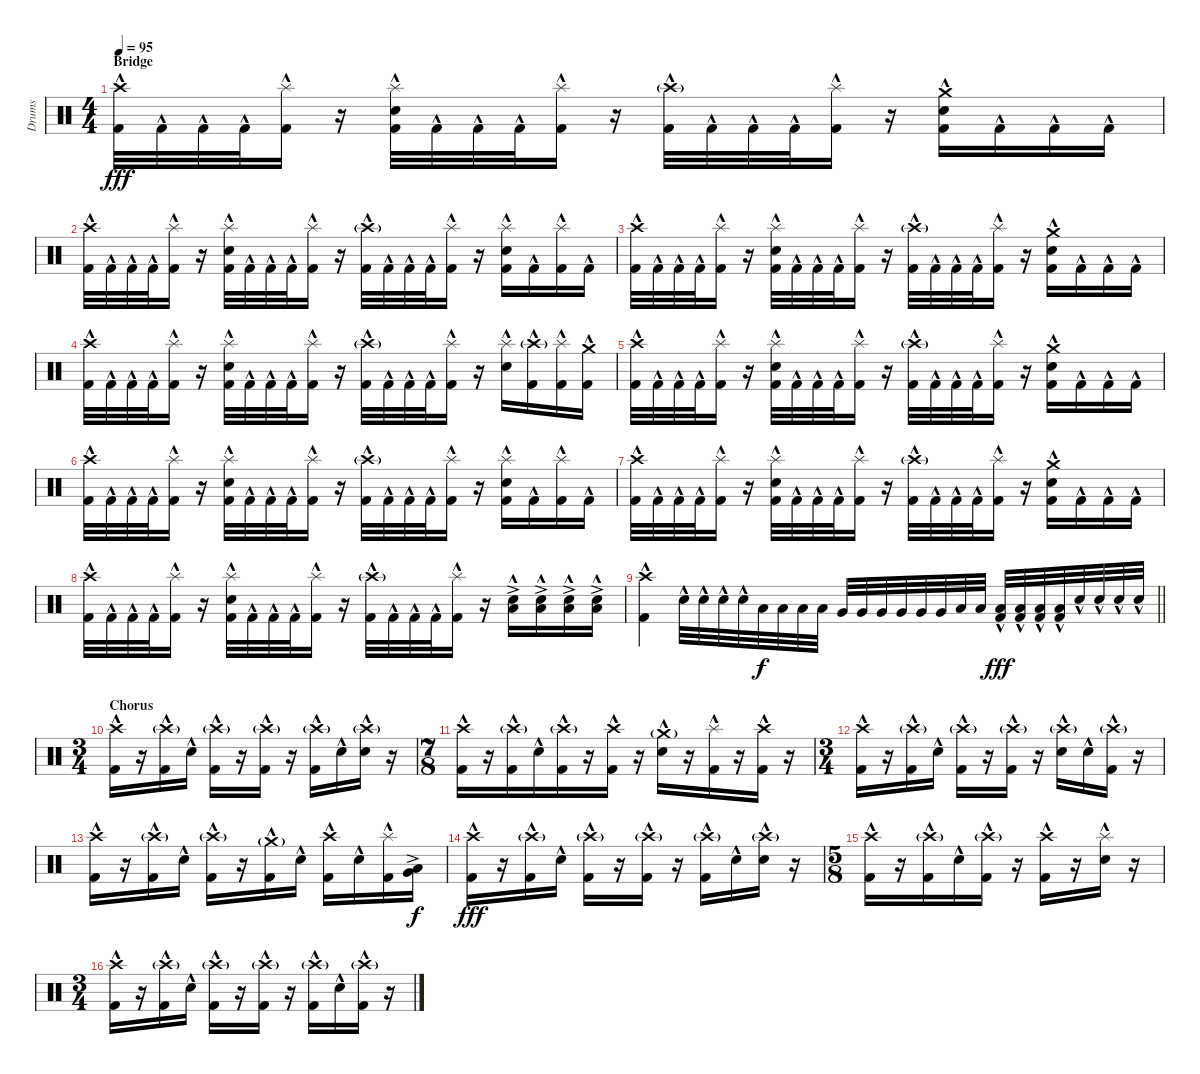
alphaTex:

\track ("Drums" "Drums") {instrument percussion}
\staff {score}
\articulation defaults
\ts (4 4)
\section ("" "Bridge")
\tempo 95
\clef neutral
\ks c
("Crash high (hit)" "Kick (hit) 2"{hac}).32{dy fff} "Kick (hit) 2"{hac}.32 "Kick (hit) 2"{hac}.32 "Kick (hit) 2"{hac}.32 ("Splash (hit)" "Kick (hit) 2"{hac}).16 r.16 ("Splash (hit)" "Electric Snare (hit)"{hac} "Kick (hit) 2"{hac}).32 "Kick (hit) 2"{hac}.32 "Kick (hit) 2"{hac}.32 "Kick (hit) 2"{hac}.32 ("Splash (hit)" "Kick (hit) 2"{hac}).16 r.16 ("Crash high (hit)"{g} "Kick (hit) 2"{hac}).32 "Kick (hit) 2"{hac}.32 "Kick (hit) 2"{hac}.32 "Kick (hit) 2"{hac}.32 ("Splash (hit)" "Kick (hit) 2"{hac}).16 r.16 ("Crash medium (hit)" "Electric Snare (hit)"{hac} "Kick (hit) 2"{hac}).16 "Kick (hit) 2"{hac}.16 "Kick (hit) 2"{hac}.16 "Kick (hit) 2"{hac}.16 |
("Crash high (hit)" "Kick (hit) 2"{hac}).32 "Kick (hit) 2"{hac}.32 "Kick (hit) 2"{hac}.32 "Kick (hit) 2"{hac}.32 ("Splash (hit)" "Kick (hit) 2"{hac}).16 r.16 ("Splash (hit)" "Electric Snare (hit)"{hac} "Kick (hit) 2"{hac}).32 "Kick (hit) 2"{hac}.32 "Kick (hit) 2"{hac}.32 "Kick (hit) 2"{hac}.32 ("Splash (hit)" "Kick (hit) 2"{hac}).16 r.16 ("Crash high (hit)"{g} "Kick (hit) 2"{hac}).32 "Kick (hit) 2"{hac}.32 "Kick (hit) 2"{hac}.32 "Kick (hit) 2"{hac}.32 ("Splash (hit)" "Kick (hit) 2"{hac}).16 r.16 ("Splash (hit)" "Electric Snare (hit)"{hac} "Kick (hit) 2"{hac}).16 "Kick (hit) 2"{hac}.16 ("Splash (hit)" "Kick (hit) 2"{hac}).16 "Kick (hit) 2"{hac}.16 |
("Crash high (hit)" "Kick (hit) 2"{hac}).32 "Kick (hit) 2"{hac}.32 "Kick (hit) 2"{hac}.32 "Kick (hit) 2"{hac}.32 ("Splash (hit)" "Kick (hit) 2"{hac}).16 r.16 ("Splash (hit)" "Electric Snare (hit)"{hac} "Kick (hit) 2"{hac}).32 "Kick (hit) 2"{hac}.32 "Kick (hit) 2"{hac}.32 "Kick (hit) 2"{hac}.32 ("Splash (hit)" "Kick (hit) 2"{hac}).16 r.16 ("Crash high (hit)"{g} "Kick (hit) 2"{hac}).32 "Kick (hit) 2"{hac}.32 "Kick (hit) 2"{hac}.32 "Kick (hit) 2"{hac}.32 ("Splash (hit)" "Kick (hit) 2"{hac}).16 r.16 ("Crash medium (hit)" "Electric Snare (hit)"{hac} "Kick (hit) 2"{hac}).16 "Kick (hit) 2"{hac}.16 "Kick (hit) 2"{hac}.16 "Kick (hit) 2"{hac}.16 |
("Crash high (hit)" "Kick (hit) 2"{hac}).32 "Kick (hit) 2"{hac}.32 "Kick (hit) 2"{hac}.32 "Kick (hit) 2"{hac}.32 ("Splash (hit)" "Kick (hit) 2"{hac}).16 r.16 ("Splash (hit)" "Electric Snare (hit)"{hac} "Kick (hit) 2"{hac}).32 "Kick (hit) 2"{hac}.32 "Kick (hit) 2"{hac}.32 "Kick (hit) 2"{hac}.32 ("Splash (hit)" "Kick (hit) 2"{hac}).16 r.16 ("Crash high (hit)"{g} "Kick (hit) 2"{hac}).32 "Kick (hit) 2"{hac}.32 "Kick (hit) 2"{hac}.32 "Kick (hit) 2"{hac}.32 ("Splash (hit)" "Kick (hit) 2"{hac}).16 r.16 ("Splash (hit)" "Electric Snare (hit)"{hac}).16 ("Crash high (hit)"{g} "Kick (hit) 2"{hac}).16 ("Splash (hit)" "Kick (hit) 2"{hac}).16 ("Crash medium (hit)" "Kick (hit) 2"{hac}).16 |
("Crash high (hit)" "Kick (hit) 2"{hac}).32 "Kick (hit) 2"{hac}.32 "Kick (hit) 2"{hac}.32 "Kick (hit) 2"{hac}.32 ("Splash (hit)" "Kick (hit) 2"{hac}).16 r.16 ("Splash (hit)" "Electric Snare (hit)"{hac} "Kick (hit) 2"{hac}).32 "Kick (hit) 2"{hac}.32 "Kick (hit) 2"{hac}.32 "Kick (hit) 2"{hac}.32 ("Splash (hit)" "Kick (hit) 2"{hac}).16 r.16 ("Crash high (hit)"{g} "Kick (hit) 2"{hac}).32 "Kick (hit) 2"{hac}.32 "Kick (hit) 2"{hac}.32 "Kick (hit) 2"{hac}.32 ("Splash (hit)" "Kick (hit) 2"{hac}).16 r.16 ("Crash medium (hit)" "Electric Snare (hit)"{hac} "Kick (hit) 2"{hac}).16 "Kick (hit) 2"{hac}.16 "Kick (hit) 2"{hac}.16 "Kick (hit) 2"{hac}.16 |
("Crash high (hit)" "Kick (hit) 2"{hac}).32 "Kick (hit) 2"{hac}.32 "Kick (hit) 2"{hac}.32 "Kick (hit) 2"{hac}.32 ("Splash (hit)" "Kick (hit) 2"{hac}).16 r.16 ("Splash (hit)" "Electric Snare (hit)"{hac} "Kick (hit) 2"{hac}).32 "Kick (hit) 2"{hac}.32 "Kick (hit) 2"{hac}.32 "Kick (hit) 2"{hac}.32 ("Splash (hit)" "Kick (hit) 2"{hac}).16 r.16 ("Crash high (hit)"{g} "Kick (hit) 2"{hac}).32 "Kick (hit) 2"{hac}.32 "Kick (hit) 2"{hac}.32 "Kick (hit) 2"{hac}.32 ("Splash (hit)" "Kick (hit) 2"{hac}).16 r.16 ("Splash (hit)" "Electric Snare (hit)"{hac} "Kick (hit) 2"{hac}).16 "Kick (hit) 2"{hac}.16 ("Splash (hit)" "Kick (hit) 2"{hac}).16 "Kick (hit) 2"{hac}.16 |
("Crash high (hit)" "Kick (hit) 2"{hac}).32 "Kick (hit) 2"{hac}.32 "Kick (hit) 2"{hac}.32 "Kick (hit) 2"{hac}.32 ("Splash (hit)" "Kick (hit) 2"{hac}).16 r.16 ("Splash (hit)" "Electric Snare (hit)"{hac} "Kick (hit) 2"{hac}).32 "Kick (hit) 2"{hac}.32 "Kick (hit) 2"{hac}.32 "Kick (hit) 2"{hac}.32 ("Splash (hit)" "Kick (hit) 2"{hac}).16 r.16 ("Crash high (hit)"{g} "Kick (hit) 2"{hac}).32 "Kick (hit) 2"{hac}.32 "Kick (hit) 2"{hac}.32 "Kick (hit) 2"{hac}.32 ("Splash (hit)" "Kick (hit) 2"{hac}).16 r.16 ("Crash medium (hit)" "Electric Snare (hit)"{hac} "Kick (hit) 2"{hac}).16 "Kick (hit) 2"{hac}.16 "Kick (hit) 2"{hac}.16 "Kick (hit) 2"{hac}.16 |
("Crash high (hit)" "Kick (hit) 2"{hac}).32 "Kick (hit) 2"{hac}.32 "Kick (hit) 2"{hac}.32 "Kick (hit) 2"{hac}.32 ("Splash (hit)" "Kick (hit) 2"{hac}).16 r.16 ("Splash (hit)" "Electric Snare (hit)"{hac} "Kick (hit) 2"{hac}).32 "Kick (hit) 2"{hac}.32 "Kick (hit) 2"{hac}.32 "Kick (hit) 2"{hac}.32 ("Splash (hit)" "Kick (hit) 2"{hac}).16 r.16 ("Crash high (hit)"{g} "Kick (hit) 2"{hac}).32 "Kick (hit) 2"{hac}.32 "Kick (hit) 2"{hac}.32 "Kick (hit) 2"{hac}.32 ("Splash (hit)" "Kick (hit) 2"{hac}).16 r.16 ("Low Floor Tom (hit)"{ac} "Electric Snare (hit)"{hac}).16{bd 60} ("Low Floor Tom (hit)"{ac} "Electric Snare (hit)"{hac}).16{bd 60} ("Low Floor Tom (hit)"{ac} "Electric Snare (hit)"{hac}).16{bd 60} ("Low Floor Tom (hit)"{ac} "Electric Snare (hit)"{hac}).16{bd 60} |
\barLineRight lightlight
("Crash high (hit)" "Kick (hit) 2"{hac}).4 "Electric Snare (hit)"{hac}.32 "Electric Snare (hit)"{hac}.32 "Electric Snare (hit)"{hac}.32 "Electric Snare (hit)"{hac}.32 "Low Tom (hit)".32{dy f} "Low Tom (hit)".32 "Low Tom (hit)".32 "Low Tom (hit)".32 "Very Low Tom (hit)".32 "Very Low Tom (hit)".32 "Very Low Tom (hit)".32 "Very Low Tom (hit)".32 "Very Low Tom (hit)".32 "Very Low Tom (hit)".32 "Low Floor Tom (hit)".32 "Low Floor Tom (hit)".32 ("Low Floor Tom (hit)" "Kick (hit) 2"{hac}).32{dy fff} ("Low Floor Tom (hit)" "Kick (hit) 2"{hac}).32 ("Low Floor Tom (hit)" "Kick (hit) 2"{hac}).32 ("Low Floor Tom (hit)" "Kick (hit) 2"{hac}).32 "Electric Snare (hit)"{hac}.32 "Electric Snare (hit)"{hac}.32 "Electric Snare (hit)"{hac}.32 "Electric Snare (hit)"{hac}.32 |
\ts (3 4)
\section ("" "Chorus")
("Crash high (hit)" "Kick (hit) 2"{hac}).16 r.16 ("Crash high (hit)"{g} "Kick (hit) 2"{hac}).16 "Electric Snare (hit)"{hac}.16 ("Crash high (hit)"{g} "Kick (hit) 2"{hac}).16 r.16 ("Crash high (hit)"{g} "Kick (hit) 2"{hac}).16 r.16 ("Crash high (hit)"{g} "Kick (hit) 2"{hac}).16 "Electric Snare (hit)"{hac}.16 ("Crash high (hit)"{g} "Electric Snare (hit)"{hac}).16 r.16 |
\ts (7 8)
("Crash high (hit)" "Kick (hit) 2"{hac}).16 r.16 ("Crash high (hit)"{g} "Kick (hit) 2"{hac}).16 "Electric Snare (hit)"{hac}.16 ("Crash high (hit)"{g} "Kick (hit) 2"{hac}).16 r.16 ("Crash high (hit)" "Kick (hit) 2"{hac}).16 r.16 ("Crash medium (hit)"{g} "Electric Snare (hit)"{hac}).16 r.16 ("Splash (hit)"{hac} "Kick (hit) 2"{hac}).16 r.16 ("Crash high (hit)" "Kick (hit) 2"{hac}).16 r.16 |
\ts (3 4)
("Crash high (hit)" "Kick (hit) 2"{hac}).16 r.16 ("Crash high (hit)"{g} "Kick (hit) 2"{hac}).16 "Electric Snare (hit)"{hac}.16 ("Crash high (hit)"{g} "Kick (hit) 2"{hac}).16 r.16 ("Crash high (hit)"{g} "Kick (hit) 2"{hac}).16 r.16 ("Crash high (hit)"{g} "Electric Snare (hit)"{hac}).16 "Electric Snare (hit)"{hac}.16 ("Crash high (hit)"{g} "Kick (hit) 2"{hac}).16 r.16 |
("Crash high (hit)" "Kick (hit) 2"{hac}).16 r.16 ("Crash high (hit)"{g} "Kick (hit) 2"{hac}).16 "Electric Snare (hit)"{hac}.16 ("Crash high (hit)"{g} "Kick (hit) 2"{hac}).16 r.16 ("Crash medium (hit)"{g} "Kick (hit) 2"{hac}).16 "Electric Snare (hit)"{hac}.16 ("Crash high (hit)" "Kick (hit) 2"{hac}).16 "Electric Snare (hit)"{hac}.16 ("Splash (hit)"{hac} "Kick (hit) 2"{hac}).16 ("Very Low Tom (hit)"{ac} "Low Floor Tom (hit)"{ac}).16{bd 60 dy f} |
("Crash high (hit)" "Kick (hit) 2"{hac}).16{dy fff} r.16 ("Crash high (hit)"{g} "Kick (hit) 2"{hac}).16 "Electric Snare (hit)"{hac}.16 ("Crash high (hit)"{g} "Kick (hit) 2"{hac}).16 r.16 ("Crash high (hit)"{g} "Kick (hit) 2"{hac}).16 r.16 ("Crash high (hit)"{g} "Kick (hit) 2"{hac}).16 "Electric Snare (hit)"{hac}.16 ("Crash high (hit)"{g} "Electric Snare (hit)"{hac}).16 r.16 |
\ts (5 8)
("Crash high (hit)" "Kick (hit) 2"{hac}).16 r.16 ("Crash high (hit)"{g} "Kick (hit) 2"{hac}).16 "Electric Snare (hit)"{hac}.16 ("Crash high (hit)"{g} "Kick (hit) 2"{hac}).16 r.16 ("Crash high (hit)" "Kick (hit) 2"{hac}).16 r.16 ("Splash (hit)"{hac} "Electric Snare (hit)"{hac}).16 r.16 |
\ts (3 4)
("Crash high (hit)" "Kick (hit) 2"{hac}).16 r.16 ("Crash high (hit)"{g} "Kick (hit) 2"{hac}).16 "Electric Snare (hit)"{hac}.16 ("Crash high (hit)"{g} "Kick (hit) 2"{hac}).16 r.16 ("Crash high (hit)"{g} "Kick (hit) 2"{hac}).16 r.16 ("Crash high (hit)"{g} "Kick (hit) 2"{hac}).16 "Electric Snare (hit)"{hac}.16 ("Crash high (hit)"{g} "Kick (hit) 2"{hac}).16 r.16
